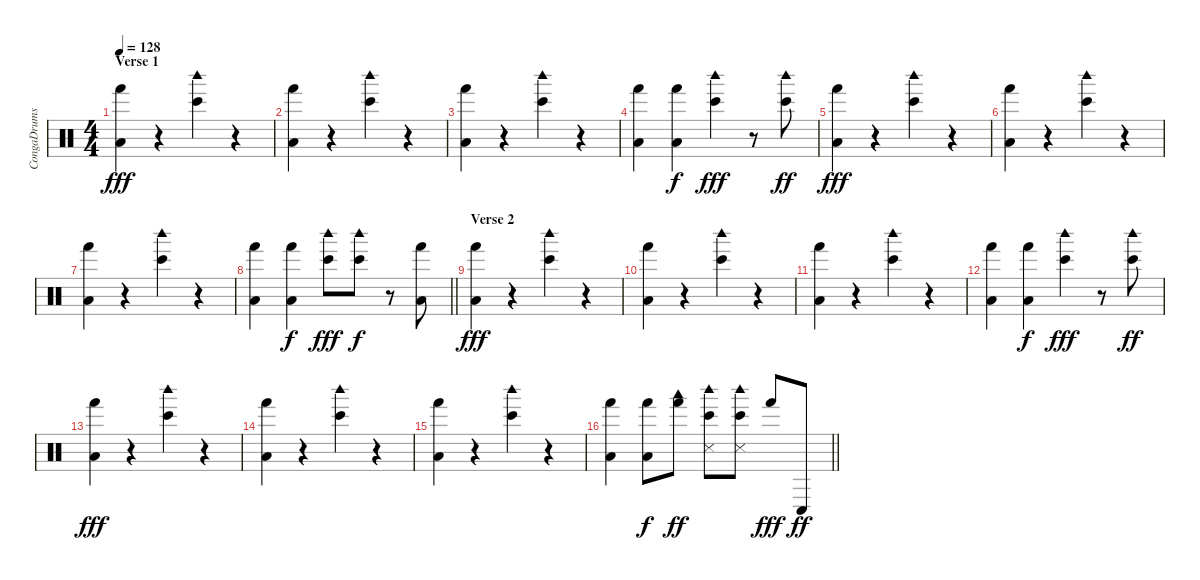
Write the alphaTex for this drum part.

\track ("CongaDrums" "CongaDrums") {instrument percussion}
\staff {score}
\articulation defaults
\ts (4 4)
\section ("" "Verse 1")
\tempo 128
\clef neutral
\ks c
("Hand (hit)" "Low Floor Tom (hit)").4{dy fff} r.4 ("Bongo High (hit)" "Woodblock high (hit)").4 r.4 |
("Hand (hit)" "Low Floor Tom (hit)").4 r.4 ("Bongo High (hit)" "Woodblock high (hit)").4 r.4 |
("Hand (hit)" "Low Floor Tom (hit)").4 r.4 ("Bongo High (hit)" "Woodblock high (hit)").4 r.4 |
("Hand (hit)" "Low Floor Tom (hit)").4 ("Hand (hit)" "Low Floor Tom (hit)").4{dy f} ("Bongo High (hit)" "Woodblock high (hit)").4{dy fff} r.8 ("Bongo High (hit)" "Woodblock high (hit)").8{dy ff} |
("Hand (hit)" "Low Floor Tom (hit)").4{dy fff} r.4 ("Bongo High (hit)" "Woodblock high (hit)").4 r.4 |
("Hand (hit)" "Low Floor Tom (hit)").4 r.4 ("Bongo High (hit)" "Woodblock high (hit)").4 r.4 |
("Hand (hit)" "Low Floor Tom (hit)").4 r.4 ("Bongo High (hit)" "Woodblock high (hit)").4 r.4 |
\barLineRight lightlight
("Hand (hit)" "Low Floor Tom (hit)").4 ("Hand (hit)" "Low Floor Tom (hit)").4{dy f} ("Bongo High (hit)" "Woodblock high (hit)").8{dy fff} ("Bongo High (hit)" "Woodblock high (hit)").8{dy f} r.8 ("Hand (hit)" "Low Floor Tom (hit)").8 |
\section ("" "Verse 2")
("Hand (hit)" "Low Floor Tom (hit)").4{dy fff} r.4 ("Bongo High (hit)" "Woodblock high (hit)").4 r.4 |
("Hand (hit)" "Low Floor Tom (hit)").4 r.4 ("Bongo High (hit)" "Woodblock high (hit)").4 r.4 |
("Hand (hit)" "Low Floor Tom (hit)").4 r.4 ("Bongo High (hit)" "Woodblock high (hit)").4 r.4 |
("Hand (hit)" "Low Floor Tom (hit)").4 ("Hand (hit)" "Low Floor Tom (hit)").4{dy f} ("Bongo High (hit)" "Woodblock high (hit)").4{dy fff} r.8 ("Bongo High (hit)" "Woodblock high (hit)").8{dy ff} |
("Hand (hit)" "Low Floor Tom (hit)").4{dy fff} r.4 ("Bongo High (hit)" "Woodblock high (hit)").4 r.4 |
("Hand (hit)" "Low Floor Tom (hit)").4 r.4 ("Bongo High (hit)" "Woodblock high (hit)").4 r.4 |
("Hand (hit)" "Low Floor Tom (hit)").4 r.4 ("Bongo High (hit)" "Woodblock high (hit)").4 r.4 |
\barLineRight lightlight
("Hand (hit)" "Low Floor Tom (hit)").4 ("Hand (hit)" "Low Floor Tom (hit)").8{dy f} ("Hand (hit)" "Woodblock low (hit)").8{dy ff} ("Bongo High (hit)" "Woodblock high (hit)" "Snare (side stick) 3").8 ("Bongo High (hit)" "Woodblock high (hit)" "Snare (side stick) 3").8 "Hand (hit)".8{dy fff} "Conga low (hit)".8{dy ff}
